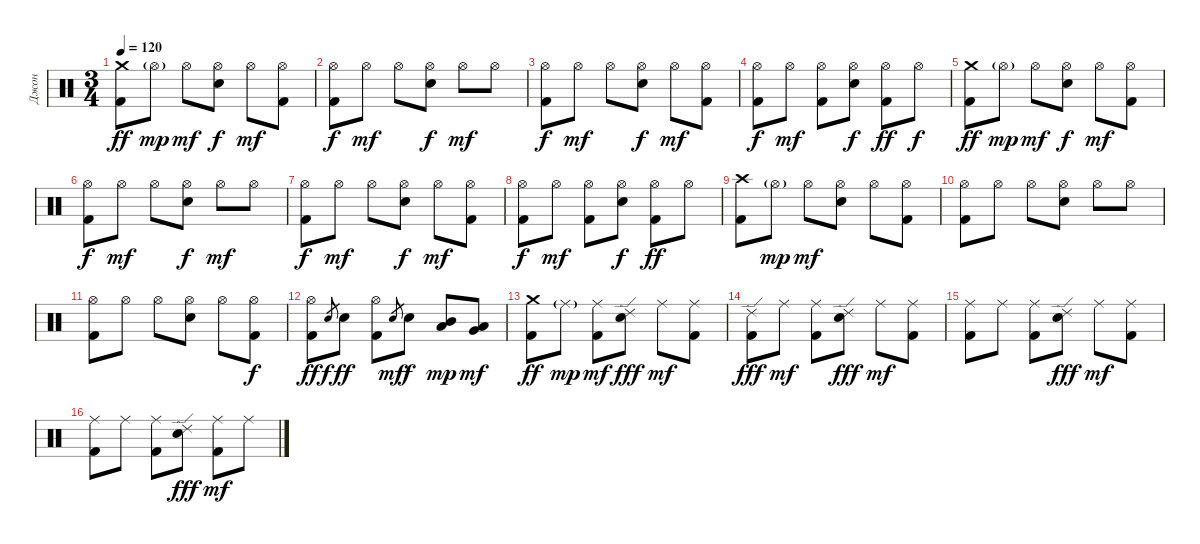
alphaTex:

\track ("Джон" "Джон") {instrument percussion}
\staff {score}
\articulation defaults
\ts (3 4)
\tempo 120
\clef neutral
\ks c
("Crash medium (hit)" "Kick (hit) 2").8{dy ff} "Hi-Hat (open)"{g}.8{dy mp} "Hi-Hat (open)".8{dy mf} ("Hi-Hat (open)" "Electric Snare (hit)").8{dy f} "Hi-Hat (open)".8{dy mf} ("Hi-Hat (open)" "Kick (hit) 2").8 |
("Hi-Hat (open)" "Kick (hit) 2").8{dy f} "Hi-Hat (open)".8{dy mf} "Hi-Hat (open)".8 ("Hi-Hat (open)" "Electric Snare (hit)").8{dy f} "Hi-Hat (open)".8{dy mf} "Hi-Hat (open)".8 |
("Hi-Hat (open)" "Kick (hit) 2").8{dy f} "Hi-Hat (open)".8{dy mf} "Hi-Hat (open)".8 ("Hi-Hat (open)" "Electric Snare (hit)").8{dy f} "Hi-Hat (open)".8{dy mf} ("Hi-Hat (open)" "Kick (hit) 2").8 |
("Hi-Hat (open)" "Kick (hit) 2").8{dy f} "Hi-Hat (open)".8{dy mf} ("Hi-Hat (open)" "Kick (hit) 2").8 ("Hi-Hat (open)" "Electric Snare (hit)").8{dy f} ("Hi-Hat (open)" "Kick (hit) 2").8{dy ff} "Hi-Hat (open)".8{dy f} |
("Crash medium (hit)" "Kick (hit) 2").8{dy ff} "Hi-Hat (open)"{g}.8{dy mp} "Hi-Hat (open)".8{dy mf} ("Hi-Hat (open)" "Electric Snare (hit)").8{dy f} "Hi-Hat (open)".8{dy mf} ("Hi-Hat (open)" "Kick (hit) 2").8 |
("Hi-Hat (open)" "Kick (hit) 2").8{dy f} "Hi-Hat (open)".8{dy mf} "Hi-Hat (open)".8 ("Hi-Hat (open)" "Electric Snare (hit)").8{dy f} "Hi-Hat (open)".8{dy mf} "Hi-Hat (open)".8 |
("Hi-Hat (open)" "Kick (hit) 2").8{dy f} "Hi-Hat (open)".8{dy mf} "Hi-Hat (open)".8 ("Hi-Hat (open)" "Electric Snare (hit)").8{dy f} "Hi-Hat (open)".8{dy mf} ("Hi-Hat (open)" "Kick (hit) 2").8 |
("Hi-Hat (open)" "Kick (hit) 2").8{dy f} "Hi-Hat (open)".8{dy mf} ("Hi-Hat (open)" "Kick (hit) 2").8 ("Hi-Hat (open)" "Electric Snare (hit)").8{dy f} ("Hi-Hat (open)" "Kick (hit) 2").8{dy ff} "Hi-Hat (open)".8 |
("Crash high (hit)" "Kick (hit) 2").8 "Hi-Hat (open)"{g}.8{dy mp} "Hi-Hat (open)".8{dy mf} ("Hi-Hat (open)" "Electric Snare (hit)").8 "Hi-Hat (open)".8 ("Hi-Hat (open)" "Kick (hit) 2").8 |
("Hi-Hat (open)" "Kick (hit) 2").8 "Hi-Hat (open)".8 "Hi-Hat (open)".8 ("Hi-Hat (open)" "Electric Snare (hit)").8 "Hi-Hat (open)".8 "Hi-Hat (open)".8 |
("Hi-Hat (open)" "Kick (hit) 2").8 "Hi-Hat (open)".8 "Hi-Hat (open)".8 ("Hi-Hat (open)" "Electric Snare (hit)").8 "Hi-Hat (open)".8 ("Hi-Hat (open)" "Kick (hit) 2").8{dy f} |
("Hi-Hat (open)" "Kick (hit) 2").8{dy ff} "Electric Snare (hit)".8{gr dy f} "Electric Snare (hit)".8{dy ff} ("Hi-Hat (open)" "Kick (hit) 2").8 "Snare (hit) 2".8{gr dy mf} "Snare (hit) 2".8{dy f} ("Mid Tom (hit)" "Low Tom (hit)").8{dy mp} ("Low Tom (hit)" "Very Low Tom (hit)").8{dy mf} |
("Crash medium (hit)" "Kick (hit) 2").8{dy ff} "Ride (middle)"{g}.8{dy mp} ("Ride (middle)" "Kick (hit) 2").8{dy mf} ("Ride (edge) 2" "Electric Snare (hit)").8{dy fff} "Ride (middle)".8{dy mf} ("Ride (middle)" "Kick (hit) 2").8 |
("Ride (edge) 2" "Kick (hit) 2").8{dy fff} "Ride (middle)".8{dy mf} ("Ride (middle)" "Kick (hit) 2").8 ("Ride (edge) 2" "Electric Snare (hit)").8{dy fff} "Ride (middle)".8{dy mf} ("Ride (middle)" "Kick (hit) 2").8 |
("Ride (middle)" "Kick (hit) 2").8 "Ride (middle)".8 ("Ride (middle)" "Kick (hit) 2").8 ("Ride (edge) 2" "Electric Snare (hit)").8{dy fff} "Ride (middle)".8{dy mf} ("Ride (middle)" "Kick (hit) 2").8 |
("Ride (middle)" "Kick (hit) 2").8 "Ride (middle)".8 ("Ride (middle)" "Kick (hit) 2").8 ("Ride (edge) 2" "Electric Snare (hit)").8{dy fff} ("Ride (middle)" "Kick (hit) 2").8{dy mf} "Ride (middle)".8
